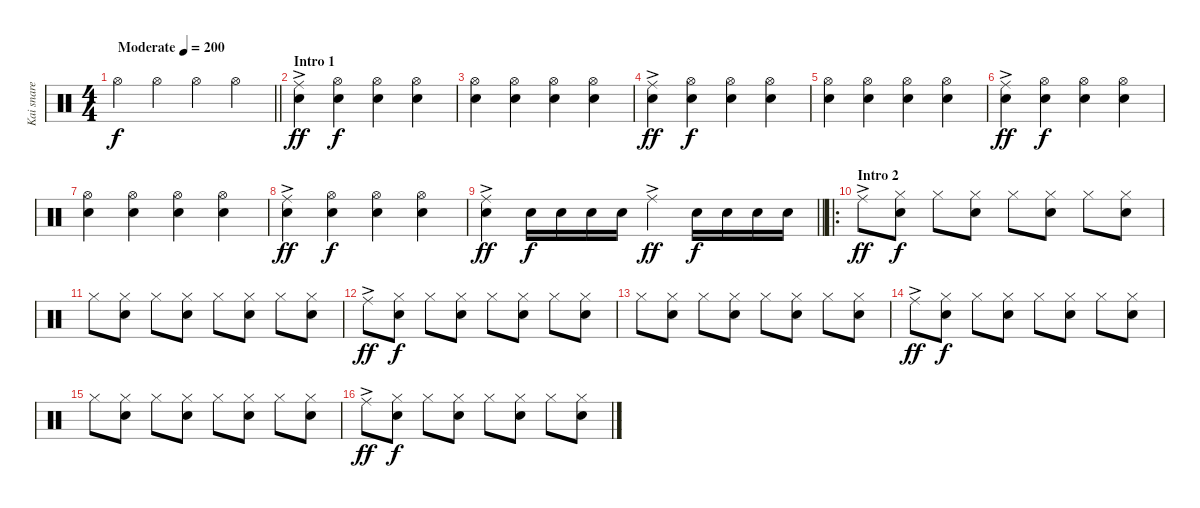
\track ("Kai snare" "Kai snare") {instrument percussion}
\staff {score}
\articulation defaults
\ts (4 4)
\tempo (200 "Moderate")
\clef neutral
\barLineRight lightlight
\ks c "Hi-Hat (open)".4{dy f} "Hi-Hat (open)".4 "Hi-Hat (open)".4 "Hi-Hat (open)".4
|
\section ("" "Intro 1")
("Ride (middle)"{ac} "Snare (hit) 2").4{dy ff} ("Hi-Hat (open)" "Snare (hit) 2").4{dy f} ("Hi-Hat (open)" "Snare (hit) 2").4 ("Hi-Hat (open)" "Snare (hit) 2").4 |
("Hi-Hat (open)" "Snare (hit) 2").4 ("Hi-Hat (open)" "Snare (hit) 2").4 ("Hi-Hat (open)" "Snare (hit) 2").4 ("Hi-Hat (open)" "Snare (hit) 2").4 |
("Ride (middle)"{ac} "Snare (hit) 2").4{dy ff} ("Hi-Hat (open)" "Snare (hit) 2").4{dy f} ("Hi-Hat (open)" "Snare (hit) 2").4 ("Hi-Hat (open)" "Snare (hit) 2").4 |
("Hi-Hat (open)" "Snare (hit) 2").4 ("Hi-Hat (open)" "Snare (hit) 2").4 ("Hi-Hat (open)" "Snare (hit) 2").4 ("Hi-Hat (open)" "Snare (hit) 2").4 |
("Ride (middle)"{ac} "Snare (hit) 2").4{dy ff} ("Hi-Hat (open)" "Snare (hit) 2").4{dy f} ("Hi-Hat (open)" "Snare (hit) 2").4 ("Hi-Hat (open)" "Snare (hit) 2").4 |
("Hi-Hat (open)" "Snare (hit) 2").4 ("Hi-Hat (open)" "Snare (hit) 2").4 ("Hi-Hat (open)" "Snare (hit) 2").4 ("Hi-Hat (open)" "Snare (hit) 2").4 |
("Ride (middle)"{ac} "Snare (hit) 2").4{dy ff} ("Hi-Hat (open)" "Snare (hit) 2").4{dy f} ("Hi-Hat (open)" "Snare (hit) 2").4 ("Hi-Hat (open)" "Snare (hit) 2").4 |
\barLineRight lightlight
("Ride (middle)"{ac} "Snare (hit) 2").4{dy ff} "Snare (hit) 2".16{dy f} "Snare (hit) 2".16 "Snare (hit) 2".16 "Snare (hit) 2".16 "Ride (middle)"{ac}.4{dy ff} "Snare (hit) 2".16{dy f} "Snare (hit) 2".16 "Snare (hit) 2".16 "Snare (hit) 2".16 |
\ro
\section ("" "Intro 2")
"Ride (middle)"{ac}.8{dy ff} ("Hi-Hat (closed)" "Snare (hit) 2").8{dy f} "Hi-Hat (closed)".8 ("Hi-Hat (closed)" "Snare (hit) 2").8 "Hi-Hat (closed)".8 ("Hi-Hat (closed)" "Snare (hit) 2").8 "Hi-Hat (closed)".8 ("Hi-Hat (closed)" "Snare (hit) 2").8 |
"Hi-Hat (closed)".8 ("Hi-Hat (closed)" "Snare (hit) 2").8 "Hi-Hat (closed)".8 ("Hi-Hat (closed)" "Snare (hit) 2").8 "Hi-Hat (closed)".8 ("Hi-Hat (closed)" "Snare (hit) 2").8 "Hi-Hat (closed)".8 ("Hi-Hat (closed)" "Snare (hit) 2").8 |
"Ride (middle)"{ac}.8{dy ff} ("Hi-Hat (closed)" "Snare (hit) 2").8{dy f} "Hi-Hat (closed)".8 ("Hi-Hat (closed)" "Snare (hit) 2").8 "Hi-Hat (closed)".8 ("Hi-Hat (closed)" "Snare (hit) 2").8 "Hi-Hat (closed)".8 ("Hi-Hat (closed)" "Snare (hit) 2").8 |
"Hi-Hat (closed)".8 ("Hi-Hat (closed)" "Snare (hit) 2").8 "Hi-Hat (closed)".8 ("Hi-Hat (closed)" "Snare (hit) 2").8 "Hi-Hat (closed)".8 ("Hi-Hat (closed)" "Snare (hit) 2").8 "Hi-Hat (closed)".8 ("Hi-Hat (closed)" "Snare (hit) 2").8 |
"Ride (middle)"{ac}.8{dy ff} ("Hi-Hat (closed)" "Snare (hit) 2").8{dy f} "Hi-Hat (closed)".8 ("Hi-Hat (closed)" "Snare (hit) 2").8 "Hi-Hat (closed)".8 ("Hi-Hat (closed)" "Snare (hit) 2").8 "Hi-Hat (closed)".8 ("Hi-Hat (closed)" "Snare (hit) 2").8 |
"Hi-Hat (closed)".8 ("Hi-Hat (closed)" "Snare (hit) 2").8 "Hi-Hat (closed)".8 ("Hi-Hat (closed)" "Snare (hit) 2").8 "Hi-Hat (closed)".8 ("Hi-Hat (closed)" "Snare (hit) 2").8 "Hi-Hat (closed)".8 ("Hi-Hat (closed)" "Snare (hit) 2").8 |
"Ride (middle)"{ac}.8{dy ff} ("Hi-Hat (closed)" "Snare (hit) 2").8{dy f} "Hi-Hat (closed)".8 ("Hi-Hat (closed)" "Snare (hit) 2").8 "Hi-Hat (closed)".8 ("Hi-Hat (closed)" "Snare (hit) 2").8 "Hi-Hat (closed)".8 ("Hi-Hat (closed)" "Snare (hit) 2").8
